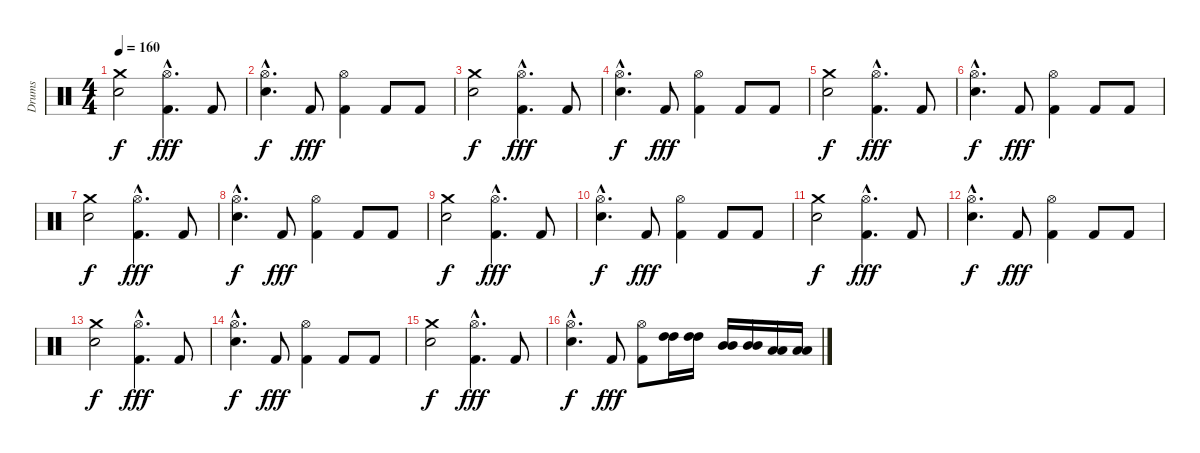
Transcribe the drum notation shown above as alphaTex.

\track ("Drums" "Drums") {instrument percussion}
\staff {score}
\articulation defaults
\ts (4 4)
\tempo 160
\clef neutral
\ks c
("Crash medium (hit)" "Electric Snare (hit)").2{dy f} ("Hi-Hat (open)"{hac} "Kick (hit) 2"{hac}).4{d dy fff} "Kick (hit) 2".8 |
("Electric Snare (hit)"{hac} "Hi-Hat (open)"{hac}).4{d dy f} "Kick (hit) 2".8{dy fff} ("Hi-Hat (open)" "Kick (hit) 2").4 "Kick (hit) 2".8 "Kick (hit) 2".8 |
("Crash medium (hit)" "Electric Snare (hit)").2{dy f} ("Hi-Hat (open)"{hac} "Kick (hit) 2"{hac}).4{d dy fff} "Kick (hit) 2".8 |
("Electric Snare (hit)"{hac} "Hi-Hat (open)"{hac}).4{d dy f} "Kick (hit) 2".8{dy fff} ("Hi-Hat (open)" "Kick (hit) 2").4 "Kick (hit) 2".8 "Kick (hit) 2".8 |
("Crash medium (hit)" "Electric Snare (hit)").2{dy f} ("Hi-Hat (open)"{hac} "Kick (hit) 2"{hac}).4{d dy fff} "Kick (hit) 2".8 |
("Electric Snare (hit)"{hac} "Hi-Hat (open)"{hac}).4{d dy f} "Kick (hit) 2".8{dy fff} ("Hi-Hat (open)" "Kick (hit) 2").4 "Kick (hit) 2".8 "Kick (hit) 2".8 |
("Crash medium (hit)" "Electric Snare (hit)").2{dy f} ("Hi-Hat (open)"{hac} "Kick (hit) 2"{hac}).4{d dy fff} "Kick (hit) 2".8 |
("Electric Snare (hit)"{hac} "Hi-Hat (open)"{hac}).4{d dy f} "Kick (hit) 2".8{dy fff} ("Hi-Hat (open)" "Kick (hit) 2").4 "Kick (hit) 2".8 "Kick (hit) 2".8 |
("Crash medium (hit)" "Electric Snare (hit)").2{dy f} ("Hi-Hat (open)"{hac} "Kick (hit) 2"{hac}).4{d dy fff} "Kick (hit) 2".8 |
("Electric Snare (hit)"{hac} "Hi-Hat (open)"{hac}).4{d dy f} "Kick (hit) 2".8{dy fff} ("Hi-Hat (open)" "Kick (hit) 2").4 "Kick (hit) 2".8 "Kick (hit) 2".8 |
("Crash medium (hit)" "Electric Snare (hit)").2{dy f} ("Hi-Hat (open)"{hac} "Kick (hit) 2"{hac}).4{d dy fff} "Kick (hit) 2".8 |
("Electric Snare (hit)"{hac} "Hi-Hat (open)"{hac}).4{d dy f} "Kick (hit) 2".8{dy fff} ("Hi-Hat (open)" "Kick (hit) 2").4 "Kick (hit) 2".8 "Kick (hit) 2".8 |
("Crash medium (hit)" "Electric Snare (hit)").2{dy f} ("Hi-Hat (open)"{hac} "Kick (hit) 2"{hac}).4{d dy fff} "Kick (hit) 2".8 |
("Electric Snare (hit)"{hac} "Hi-Hat (open)"{hac}).4{d dy f} "Kick (hit) 2".8{dy fff} ("Hi-Hat (open)" "Kick (hit) 2").4 "Kick (hit) 2".8 "Kick (hit) 2".8 |
("Crash medium (hit)" "Electric Snare (hit)").2{dy f} ("Hi-Hat (open)"{hac} "Kick (hit) 2"{hac}).4{d dy fff} "Kick (hit) 2".8 |
("Electric Snare (hit)"{hac} "Hi-Hat (open)"{hac}).4{d dy f} "Kick (hit) 2".8{dy fff} ("Hi-Hat (open)" "Kick (hit) 2").8 ("High Tom (hit)" "High Tom (hit)").16 ("High Tom (hit)" "High Tom (hit)").16 ("Mid Tom (hit)" "Mid Tom (hit)").16 ("Mid Tom (hit)" "Mid Tom (hit)").16 ("Low Tom (hit)" "Low Tom (hit)").16 ("Low Tom (hit)" "Low Tom (hit)").16
